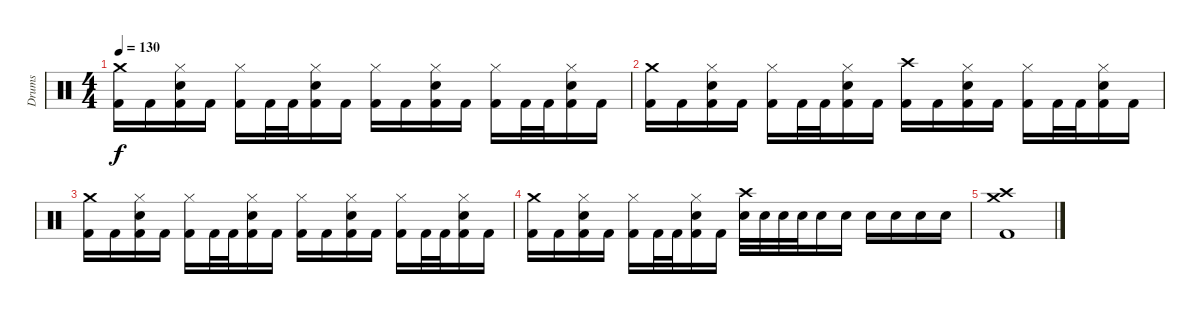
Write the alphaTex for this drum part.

\track ("Drums" "Drums") {instrument percussion}
\staff {score}
\articulation defaults
\ts (4 4)
\tempo 130
\clef neutral
\ks c
("Crash medium (hit)" "Kick (hit) 2").16{dy f} "Kick (hit) 2".16 ("Hi-Hat (closed)" "Electric Snare (hit)" "Kick (hit) 2").16 "Kick (hit) 2".16 ("Hi-Hat (closed)" "Kick (hit) 2").16 "Kick (hit) 2".32 "Kick (hit) 2".32 ("Hi-Hat (closed)" "Electric Snare (hit)" "Kick (hit) 2").16 "Kick (hit) 2".16 ("Hi-Hat (closed)" "Kick (hit) 2").16 "Kick (hit) 2".16 ("Hi-Hat (closed)" "Electric Snare (hit)" "Kick (hit) 2").16 "Kick (hit) 2".16 ("Hi-Hat (closed)" "Kick (hit) 2").16 "Kick (hit) 2".32 "Kick (hit) 2".32 ("Hi-Hat (closed)" "Electric Snare (hit)" "Kick (hit) 2").16 "Kick (hit) 2".16 |
("Crash medium (hit)" "Kick (hit) 2").16 "Kick (hit) 2".16 ("Hi-Hat (closed)" "Electric Snare (hit)" "Kick (hit) 2").16 "Kick (hit) 2".16 ("Hi-Hat (closed)" "Kick (hit) 2").16 "Kick (hit) 2".32 "Kick (hit) 2".32 ("Hi-Hat (closed)" "Electric Snare (hit)" "Kick (hit) 2").16 "Kick (hit) 2".16 ("Crash high (hit)" "Kick (hit) 2").16 "Kick (hit) 2".16 ("Hi-Hat (closed)" "Electric Snare (hit)" "Kick (hit) 2").16 "Kick (hit) 2".16 ("Hi-Hat (closed)" "Kick (hit) 2").16 "Kick (hit) 2".32 "Kick (hit) 2".32 ("Hi-Hat (closed)" "Electric Snare (hit)" "Kick (hit) 2").16 "Kick (hit) 2".16 |
("Crash medium (hit)" "Kick (hit) 2").16 "Kick (hit) 2".16 ("Hi-Hat (closed)" "Electric Snare (hit)" "Kick (hit) 2").16 "Kick (hit) 2".16 ("Hi-Hat (closed)" "Kick (hit) 2").16 "Kick (hit) 2".32 "Kick (hit) 2".32 ("Hi-Hat (closed)" "Electric Snare (hit)" "Kick (hit) 2").16 "Kick (hit) 2".16 ("Hi-Hat (closed)" "Kick (hit) 2").16 "Kick (hit) 2".16 ("Hi-Hat (closed)" "Electric Snare (hit)" "Kick (hit) 2").16 "Kick (hit) 2".16 ("Hi-Hat (closed)" "Kick (hit) 2").16 "Kick (hit) 2".32 "Kick (hit) 2".32 ("Hi-Hat (closed)" "Electric Snare (hit)" "Kick (hit) 2").16 "Kick (hit) 2".16 |
("Crash medium (hit)" "Kick (hit) 2").16 "Kick (hit) 2".16 ("Hi-Hat (closed)" "Electric Snare (hit)" "Kick (hit) 2").16 "Kick (hit) 2".16 ("Hi-Hat (closed)" "Kick (hit) 2").16 "Kick (hit) 2".32 "Kick (hit) 2".32 ("Hi-Hat (closed)" "Electric Snare (hit)" "Kick (hit) 2").16 "Kick (hit) 2".16 ("Crash high (hit)" "Electric Snare (hit)").32 "Electric Snare (hit)".32 "Electric Snare (hit)".32 "Electric Snare (hit)".32 "Electric Snare (hit)".16 "Electric Snare (hit)".16 "Electric Snare (hit)".16 "Electric Snare (hit)".16 "Electric Snare (hit)".16 "Electric Snare (hit)".16 |
("Crash medium (hit)" "Crash high (hit)" "Kick (hit) 2").1
